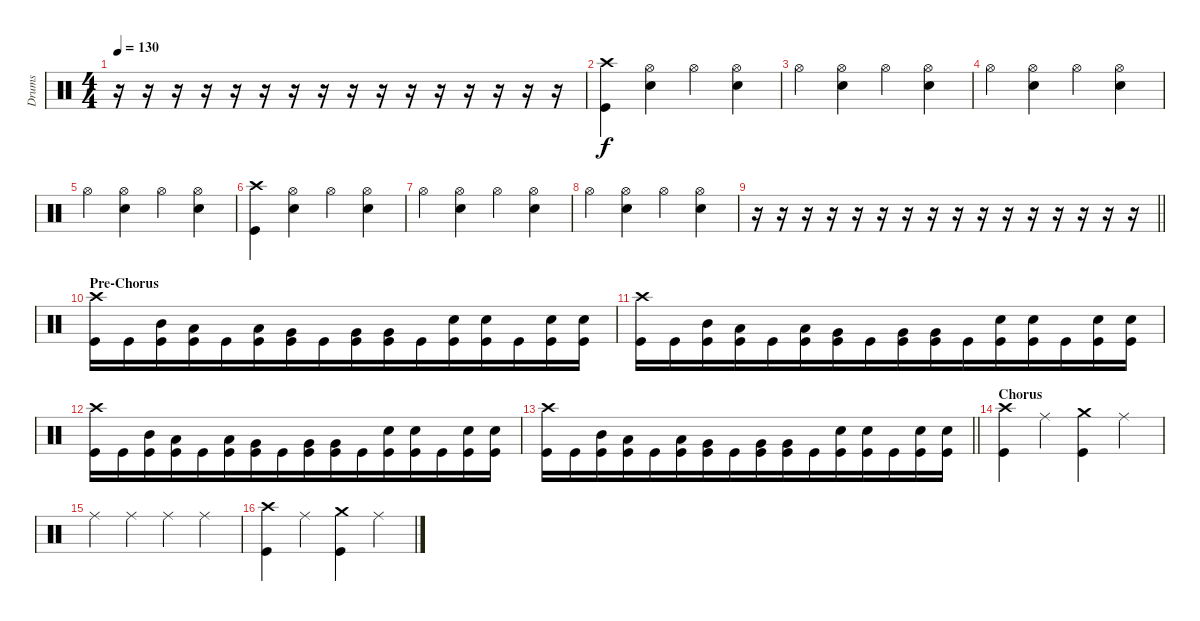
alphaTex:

\track ("Drums" "Drums") {instrument percussion}
\staff {score}
\articulation defaults
\ts (4 4)
\tempo 130
\clef neutral
\ks c
r.16{dy f} r.16 r.16 r.16 r.16 r.16 r.16 r.16 r.16 r.16 r.16 r.16 r.16 r.16 r.16 r.16 |
("Crash high (hit)" "Kick (hit)").4 ("Hi-Hat (open)" "Snare (hit) 2").4 "Hi-Hat (open)".4 ("Hi-Hat (open)" "Snare (hit) 2").4 |
"Hi-Hat (open)".4 ("Hi-Hat (open)" "Snare (hit) 2").4 "Hi-Hat (open)".4 ("Hi-Hat (open)" "Snare (hit) 2").4 |
"Hi-Hat (open)".4 ("Hi-Hat (open)" "Snare (hit) 2").4 "Hi-Hat (open)".4 ("Hi-Hat (open)" "Snare (hit) 2").4 |
"Hi-Hat (open)".4 ("Hi-Hat (open)" "Snare (hit) 2").4 "Hi-Hat (open)".4 ("Hi-Hat (open)" "Snare (hit) 2").4 |
("Crash high (hit)" "Kick (hit)").4 ("Hi-Hat (open)" "Snare (hit) 2").4 "Hi-Hat (open)".4 ("Hi-Hat (open)" "Snare (hit) 2").4 |
"Hi-Hat (open)".4 ("Hi-Hat (open)" "Snare (hit) 2").4 "Hi-Hat (open)".4 ("Hi-Hat (open)" "Snare (hit) 2").4 |
"Hi-Hat (open)".4 ("Hi-Hat (open)" "Snare (hit) 2").4 "Hi-Hat (open)".4 ("Hi-Hat (open)" "Snare (hit) 2").4 |
\barLineRight lightlight
r.16 r.16 r.16 r.16 r.16 r.16 r.16 r.16 r.16 r.16 r.16 r.16 r.16 r.16 r.16 r.16 |
\section ("" "Pre-Chorus")
("Crash high (hit)" "Kick (hit)").16{beam merge} "Kick (hit)".16 ("Mid Tom (hit)" "Kick (hit)").16{beam merge} ("Low Tom (hit)" "Kick (hit)").16{beam merge} "Kick (hit)".16 ("Low Tom (hit)" "Kick (hit)").16{beam merge} ("Very Low Tom (hit)" "Kick (hit)").16{beam merge} "Kick (hit)".16{beam merge} ("Very Low Tom (hit)" "Kick (hit)").16 ("Very Low Tom (hit)" "Kick (hit)").16{beam merge} "Kick (hit)".16{beam merge} ("Snare (hit) 2" "Kick (hit)").16{beam merge} ("Snare (hit) 2" "Kick (hit)").16 "Kick (hit)".16{beam merge} ("Snare (hit) 2" "Kick (hit)").16{beam merge} ("Snare (hit) 2" "Kick (hit)").16 |
("Crash high (hit)" "Kick (hit)").16{beam merge} "Kick (hit)".16 ("Mid Tom (hit)" "Kick (hit)").16{beam merge} ("Low Tom (hit)" "Kick (hit)").16{beam merge} "Kick (hit)".16 ("Low Tom (hit)" "Kick (hit)").16{beam merge} ("Very Low Tom (hit)" "Kick (hit)").16{beam merge} "Kick (hit)".16{beam merge} ("Very Low Tom (hit)" "Kick (hit)").16 ("Very Low Tom (hit)" "Kick (hit)").16{beam merge} "Kick (hit)".16{beam merge} ("Snare (hit) 2" "Kick (hit)").16{beam merge} ("Snare (hit) 2" "Kick (hit)").16 "Kick (hit)".16{beam merge} ("Snare (hit) 2" "Kick (hit)").16{beam merge} ("Snare (hit) 2" "Kick (hit)").16 |
("Crash high (hit)" "Kick (hit)").16{beam merge} "Kick (hit)".16 ("Mid Tom (hit)" "Kick (hit)").16{beam merge} ("Low Tom (hit)" "Kick (hit)").16{beam merge} "Kick (hit)".16 ("Low Tom (hit)" "Kick (hit)").16{beam merge} ("Very Low Tom (hit)" "Kick (hit)").16{beam merge} "Kick (hit)".16{beam merge} ("Very Low Tom (hit)" "Kick (hit)").16 ("Very Low Tom (hit)" "Kick (hit)").16{beam merge} "Kick (hit)".16{beam merge} ("Snare (hit) 2" "Kick (hit)").16{beam merge} ("Snare (hit) 2" "Kick (hit)").16 "Kick (hit)".16{beam merge} ("Snare (hit) 2" "Kick (hit)").16{beam merge} ("Snare (hit) 2" "Kick (hit)").16 |
\barLineRight lightlight
("Crash high (hit)" "Kick (hit)").16{beam merge} "Kick (hit)".16 ("Mid Tom (hit)" "Kick (hit)").16{beam merge} ("Low Tom (hit)" "Kick (hit)").16{beam merge} "Kick (hit)".16 ("Low Tom (hit)" "Kick (hit)").16{beam merge} ("Very Low Tom (hit)" "Kick (hit)").16{beam merge} "Kick (hit)".16{beam merge} ("Very Low Tom (hit)" "Kick (hit)").16 ("Very Low Tom (hit)" "Kick (hit)").16{beam merge} "Kick (hit)".16{beam merge} ("Snare (hit) 2" "Kick (hit)").16{beam merge} ("Snare (hit) 2" "Kick (hit)").16 "Kick (hit)".16{beam merge} ("Snare (hit) 2" "Kick (hit)").16{beam merge} ("Snare (hit) 2" "Kick (hit)").16 |
\section ("" "Chorus")
("Crash high (hit)" "Kick (hit)").4 "Ride (middle)".4 ("Crash medium (hit)" "Kick (hit)").4 "Ride (middle)".4 |
"Ride (middle)".4 "Ride (middle)".4{beam merge} "Ride (middle)".4 "Ride (middle)".4 |
("Crash high (hit)" "Kick (hit)").4 "Ride (middle)".4 ("Crash medium (hit)" "Kick (hit)").4 "Ride (middle)".4
